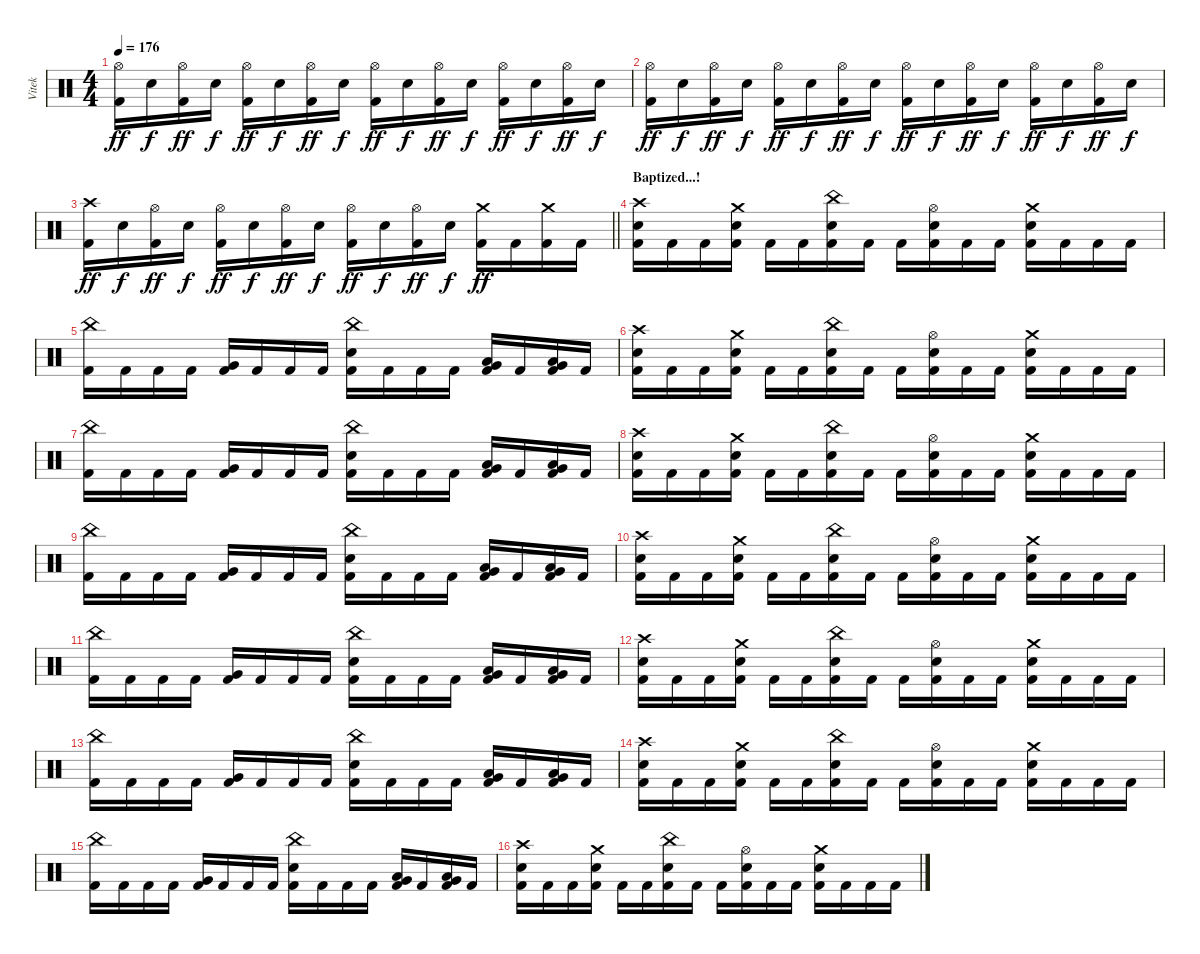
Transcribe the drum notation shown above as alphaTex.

\track ("Vitek" "Vitek") {instrument percussion}
\staff {score}
\articulation defaults
\ts (4 4)
\tempo 176
\clef neutral
\ks c
("Hi-Hat (open)" "Kick (hit) 2").16{dy ff} "Electric Snare (hit)".16{dy f} ("Hi-Hat (open)" "Kick (hit) 2").16{dy ff} "Electric Snare (hit)".16{dy f} ("Hi-Hat (open)" "Kick (hit) 2").16{dy ff} "Electric Snare (hit)".16{dy f} ("Hi-Hat (open)" "Kick (hit) 2").16{dy ff} "Electric Snare (hit)".16{dy f} ("Hi-Hat (open)" "Kick (hit) 2").16{dy ff} "Electric Snare (hit)".16{dy f} ("Hi-Hat (open)" "Kick (hit) 2").16{dy ff} "Electric Snare (hit)".16{dy f} ("Hi-Hat (open)" "Kick (hit) 2").16{dy ff} "Electric Snare (hit)".16{dy f} ("Hi-Hat (open)" "Kick (hit) 2").16{dy ff} "Electric Snare (hit)".16{dy f} |
("Hi-Hat (open)" "Kick (hit) 2").16{dy ff} "Electric Snare (hit)".16{dy f} ("Hi-Hat (open)" "Kick (hit) 2").16{dy ff} "Electric Snare (hit)".16{dy f} ("Hi-Hat (open)" "Kick (hit) 2").16{dy ff} "Electric Snare (hit)".16{dy f} ("Hi-Hat (open)" "Kick (hit) 2").16{dy ff} "Electric Snare (hit)".16{dy f} ("Hi-Hat (open)" "Kick (hit) 2").16{dy ff} "Electric Snare (hit)".16{dy f} ("Hi-Hat (open)" "Kick (hit) 2").16{dy ff} "Electric Snare (hit)".16{dy f} ("Hi-Hat (open)" "Kick (hit) 2").16{dy ff} "Electric Snare (hit)".16{dy f} ("Hi-Hat (open)" "Kick (hit) 2").16{dy ff} "Electric Snare (hit)".16{dy f} |
\barLineRight lightlight
("Crash high (hit)" "Kick (hit) 2").16{dy ff} "Electric Snare (hit)".16{dy f} ("Hi-Hat (open)" "Kick (hit) 2").16{dy ff} "Electric Snare (hit)".16{dy f} ("Hi-Hat (open)" "Kick (hit) 2").16{dy ff} "Electric Snare (hit)".16{dy f} ("Hi-Hat (open)" "Kick (hit) 2").16{dy ff} "Electric Snare (hit)".16{dy f} ("Hi-Hat (open)" "Kick (hit) 2").16{dy ff} "Electric Snare (hit)".16{dy f} ("Hi-Hat (open)" "Kick (hit) 2").16{dy ff} "Electric Snare (hit)".16{dy f} ("Crash medium (hit)" "Kick (hit) 2").16{dy ff} "Kick (hit) 2".16 ("Crash medium (hit)" "Kick (hit) 2").16 "Kick (hit) 2".16 |
\section ("" "Baptized...!")
("Crash high (hit)" "Electric Snare (hit)" "Kick (hit) 2").16 "Kick (hit) 2".16 "Kick (hit) 2".16 ("Crash medium (hit)" "Electric Snare (hit)" "Kick (hit) 2").16 "Kick (hit) 2".16 "Kick (hit) 2".16 ("China (hit)" "Electric Snare (hit)" "Kick (hit) 2").16 "Kick (hit) 2".16 "Kick (hit) 2".16 ("Hi-Hat (open)" "Electric Snare (hit)" "Kick (hit) 2").16 "Kick (hit) 2".16 "Kick (hit) 2".16 ("Crash medium (hit)" "Electric Snare (hit)" "Kick (hit) 2").16 "Kick (hit) 2".16 "Kick (hit) 2".16 "Kick (hit) 2".16 |
("China (hit)" "Kick (hit) 2").16 "Kick (hit) 2".16 "Kick (hit) 2".16 "Kick (hit) 2".16 ("Very Low Tom (hit)" "Kick (hit) 2").16 "Kick (hit) 2".16 "Kick (hit) 2".16 "Kick (hit) 2".16 ("China (hit)" "Electric Snare (hit)" "Kick (hit) 2").16 "Kick (hit) 2".16 "Kick (hit) 2".16 "Kick (hit) 2".16 ("Very Low Tom (hit)" "Low Floor Tom (hit)" "Kick (hit) 2").16 "Kick (hit) 2".16 ("Very Low Tom (hit)" "Low Floor Tom (hit)" "Kick (hit) 2").16 "Kick (hit) 2".16 |
("Crash high (hit)" "Electric Snare (hit)" "Kick (hit) 2").16 "Kick (hit) 2".16 "Kick (hit) 2".16 ("Crash medium (hit)" "Electric Snare (hit)" "Kick (hit) 2").16 "Kick (hit) 2".16 "Kick (hit) 2".16 ("China (hit)" "Electric Snare (hit)" "Kick (hit) 2").16 "Kick (hit) 2".16 "Kick (hit) 2".16 ("Hi-Hat (open)" "Electric Snare (hit)" "Kick (hit) 2").16 "Kick (hit) 2".16 "Kick (hit) 2".16 ("Crash medium (hit)" "Electric Snare (hit)" "Kick (hit) 2").16 "Kick (hit) 2".16 "Kick (hit) 2".16 "Kick (hit) 2".16 |
("China (hit)" "Kick (hit) 2").16 "Kick (hit) 2".16 "Kick (hit) 2".16 "Kick (hit) 2".16 ("Very Low Tom (hit)" "Kick (hit) 2").16 "Kick (hit) 2".16 "Kick (hit) 2".16 "Kick (hit) 2".16 ("China (hit)" "Electric Snare (hit)" "Kick (hit) 2").16 "Kick (hit) 2".16 "Kick (hit) 2".16 "Kick (hit) 2".16 ("Very Low Tom (hit)" "Low Tom (hit)" "Kick (hit) 2").16 "Kick (hit) 2".16 ("Very Low Tom (hit)" "Low Tom (hit)" "Kick (hit) 2").16 "Kick (hit) 2".16 |
("Crash high (hit)" "Electric Snare (hit)" "Kick (hit) 2").16 "Kick (hit) 2".16 "Kick (hit) 2".16 ("Crash medium (hit)" "Electric Snare (hit)" "Kick (hit) 2").16 "Kick (hit) 2".16 "Kick (hit) 2".16 ("China (hit)" "Electric Snare (hit)" "Kick (hit) 2").16 "Kick (hit) 2".16 "Kick (hit) 2".16 ("Hi-Hat (open)" "Electric Snare (hit)" "Kick (hit) 2").16 "Kick (hit) 2".16 "Kick (hit) 2".16 ("Crash medium (hit)" "Electric Snare (hit)" "Kick (hit) 2").16 "Kick (hit) 2".16 "Kick (hit) 2".16 "Kick (hit) 2".16 |
("China (hit)" "Kick (hit) 2").16 "Kick (hit) 2".16 "Kick (hit) 2".16 "Kick (hit) 2".16 ("Very Low Tom (hit)" "Kick (hit) 2").16 "Kick (hit) 2".16 "Kick (hit) 2".16 "Kick (hit) 2".16 ("China (hit)" "Electric Snare (hit)" "Kick (hit) 2").16 "Kick (hit) 2".16 "Kick (hit) 2".16 "Kick (hit) 2".16 ("Very Low Tom (hit)" "Low Tom (hit)" "Kick (hit) 2").16 "Kick (hit) 2".16 ("Very Low Tom (hit)" "Low Tom (hit)" "Kick (hit) 2").16 "Kick (hit) 2".16 |
("Crash high (hit)" "Electric Snare (hit)" "Kick (hit) 2").16 "Kick (hit) 2".16 "Kick (hit) 2".16 ("Crash medium (hit)" "Electric Snare (hit)" "Kick (hit) 2").16 "Kick (hit) 2".16 "Kick (hit) 2".16 ("China (hit)" "Electric Snare (hit)" "Kick (hit) 2").16 "Kick (hit) 2".16 "Kick (hit) 2".16 ("Hi-Hat (open)" "Electric Snare (hit)" "Kick (hit) 2").16 "Kick (hit) 2".16 "Kick (hit) 2".16 ("Crash medium (hit)" "Electric Snare (hit)" "Kick (hit) 2").16 "Kick (hit) 2".16 "Kick (hit) 2".16 "Kick (hit) 2".16 |
("China (hit)" "Kick (hit) 2").16 "Kick (hit) 2".16 "Kick (hit) 2".16 "Kick (hit) 2".16 ("Very Low Tom (hit)" "Kick (hit) 2").16 "Kick (hit) 2".16 "Kick (hit) 2".16 "Kick (hit) 2".16 ("China (hit)" "Electric Snare (hit)" "Kick (hit) 2").16 "Kick (hit) 2".16 "Kick (hit) 2".16 "Kick (hit) 2".16 ("Very Low Tom (hit)" "Low Tom (hit)" "Kick (hit) 2").16 "Kick (hit) 2".16 ("Very Low Tom (hit)" "Low Tom (hit)" "Kick (hit) 2").16 "Kick (hit) 2".16 |
("Crash high (hit)" "Electric Snare (hit)" "Kick (hit) 2").16 "Kick (hit) 2".16 "Kick (hit) 2".16 ("Crash medium (hit)" "Electric Snare (hit)" "Kick (hit) 2").16 "Kick (hit) 2".16 "Kick (hit) 2".16 ("China (hit)" "Electric Snare (hit)" "Kick (hit) 2").16 "Kick (hit) 2".16 "Kick (hit) 2".16 ("Hi-Hat (open)" "Electric Snare (hit)" "Kick (hit) 2").16 "Kick (hit) 2".16 "Kick (hit) 2".16 ("Crash medium (hit)" "Electric Snare (hit)" "Kick (hit) 2").16 "Kick (hit) 2".16 "Kick (hit) 2".16 "Kick (hit) 2".16 |
("China (hit)" "Kick (hit) 2").16 "Kick (hit) 2".16 "Kick (hit) 2".16 "Kick (hit) 2".16 ("Very Low Tom (hit)" "Kick (hit) 2").16 "Kick (hit) 2".16 "Kick (hit) 2".16 "Kick (hit) 2".16 ("China (hit)" "Electric Snare (hit)" "Kick (hit) 2").16 "Kick (hit) 2".16 "Kick (hit) 2".16 "Kick (hit) 2".16 ("Very Low Tom (hit)" "Low Tom (hit)" "Kick (hit) 2").16 "Kick (hit) 2".16 ("Very Low Tom (hit)" "Low Tom (hit)" "Kick (hit) 2").16 "Kick (hit) 2".16 |
("Crash high (hit)" "Electric Snare (hit)" "Kick (hit) 2").16 "Kick (hit) 2".16 "Kick (hit) 2".16 ("Crash medium (hit)" "Electric Snare (hit)" "Kick (hit) 2").16 "Kick (hit) 2".16 "Kick (hit) 2".16 ("China (hit)" "Electric Snare (hit)" "Kick (hit) 2").16 "Kick (hit) 2".16 "Kick (hit) 2".16 ("Hi-Hat (open)" "Electric Snare (hit)" "Kick (hit) 2").16 "Kick (hit) 2".16 "Kick (hit) 2".16 ("Crash medium (hit)" "Electric Snare (hit)" "Kick (hit) 2").16 "Kick (hit) 2".16 "Kick (hit) 2".16 "Kick (hit) 2".16 |
("China (hit)" "Kick (hit) 2").16 "Kick (hit) 2".16 "Kick (hit) 2".16 "Kick (hit) 2".16 ("Very Low Tom (hit)" "Kick (hit) 2").16 "Kick (hit) 2".16 "Kick (hit) 2".16 "Kick (hit) 2".16 ("China (hit)" "Electric Snare (hit)" "Kick (hit) 2").16 "Kick (hit) 2".16 "Kick (hit) 2".16 "Kick (hit) 2".16 ("Very Low Tom (hit)" "Low Tom (hit)" "Kick (hit) 2").16 "Kick (hit) 2".16 ("Very Low Tom (hit)" "Low Tom (hit)" "Kick (hit) 2").16 "Kick (hit) 2".16 |
("Crash high (hit)" "Electric Snare (hit)" "Kick (hit) 2").16 "Kick (hit) 2".16 "Kick (hit) 2".16 ("Crash medium (hit)" "Electric Snare (hit)" "Kick (hit) 2").16 "Kick (hit) 2".16 "Kick (hit) 2".16 ("China (hit)" "Electric Snare (hit)" "Kick (hit) 2").16 "Kick (hit) 2".16 "Kick (hit) 2".16 ("Hi-Hat (open)" "Electric Snare (hit)" "Kick (hit) 2").16 "Kick (hit) 2".16 "Kick (hit) 2".16 ("Crash medium (hit)" "Electric Snare (hit)" "Kick (hit) 2").16 "Kick (hit) 2".16 "Kick (hit) 2".16 "Kick (hit) 2".16
